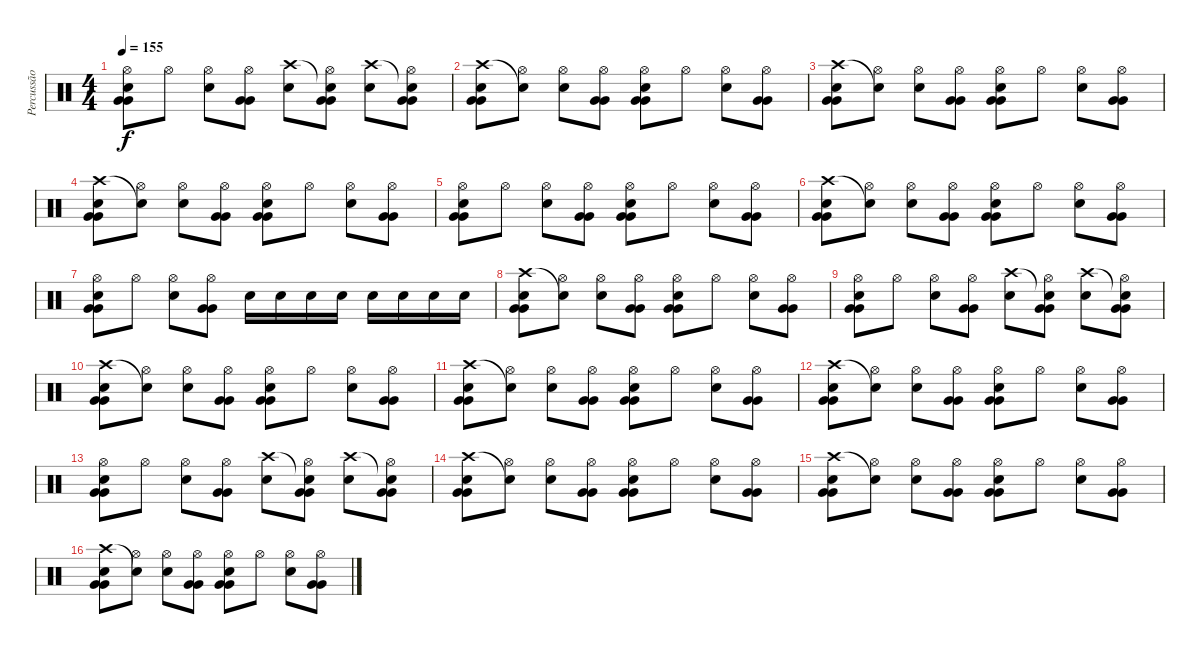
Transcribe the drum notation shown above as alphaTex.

\track ("Percussão" "Percussão") {instrument percussion}
\staff {score}
\articulation defaults
\ts (4 4)
\tempo 155
\clef neutral
\ks c
("Hi-Hat (open)" "Electric Snare (hit)" "Very Low Tom (hit)" "Very Low Tom (hit)").8{dy f} "Hi-Hat (open)".8 ("Hi-Hat (open)" "Electric Snare (hit)").8 ("Hi-Hat (open)" "Very Low Tom (hit)" "Very Low Tom (hit)").8 ("Crash high (hit)" "Electric Snare (hit)").8 ("Snare (hit)"{t} "Hi-Hat (open)" "Very Low Tom (hit)" "Very Low Tom (hit)").8 ("Crash high (hit)" "Electric Snare (hit)").8 ("Snare (hit)"{t} "Hi-Hat (open)" "Very Low Tom (hit)" "Very Low Tom (hit)").8 |
("Crash high (hit)" "Electric Snare (hit)" "Very Low Tom (hit)" "Very Low Tom (hit)").8 ("Snare (hit)"{t} "Hi-Hat (open)").8 ("Hi-Hat (open)" "Electric Snare (hit)").8 ("Hi-Hat (open)" "Very Low Tom (hit)" "Very Low Tom (hit)").8 ("Hi-Hat (open)" "Electric Snare (hit)" "Very Low Tom (hit)" "Very Low Tom (hit)").8 "Hi-Hat (open)".8 ("Hi-Hat (open)" "Electric Snare (hit)").8 ("Hi-Hat (open)" "Very Low Tom (hit)" "Very Low Tom (hit)").8 |
("Crash high (hit)" "Electric Snare (hit)" "Very Low Tom (hit)" "Very Low Tom (hit)").8 ("Snare (hit)"{t} "Hi-Hat (open)").8 ("Hi-Hat (open)" "Electric Snare (hit)").8 ("Hi-Hat (open)" "Very Low Tom (hit)" "Very Low Tom (hit)").8 ("Hi-Hat (open)" "Electric Snare (hit)" "Very Low Tom (hit)" "Very Low Tom (hit)").8 "Hi-Hat (open)".8 ("Hi-Hat (open)" "Electric Snare (hit)").8 ("Hi-Hat (open)" "Very Low Tom (hit)" "Very Low Tom (hit)").8 |
("Crash high (hit)" "Electric Snare (hit)" "Very Low Tom (hit)" "Very Low Tom (hit)").8 ("Snare (hit)"{t} "Hi-Hat (open)").8 ("Hi-Hat (open)" "Electric Snare (hit)").8 ("Hi-Hat (open)" "Very Low Tom (hit)" "Very Low Tom (hit)").8 ("Hi-Hat (open)" "Electric Snare (hit)" "Very Low Tom (hit)" "Very Low Tom (hit)").8 "Hi-Hat (open)".8 ("Hi-Hat (open)" "Electric Snare (hit)").8 ("Hi-Hat (open)" "Very Low Tom (hit)" "Very Low Tom (hit)").8 |
("Hi-Hat (open)" "Electric Snare (hit)" "Very Low Tom (hit)" "Very Low Tom (hit)").8 "Hi-Hat (open)".8 ("Hi-Hat (open)" "Electric Snare (hit)").8 ("Hi-Hat (open)" "Very Low Tom (hit)" "Very Low Tom (hit)").8 ("Hi-Hat (open)" "Electric Snare (hit)" "Very Low Tom (hit)" "Very Low Tom (hit)").8 "Hi-Hat (open)".8 ("Hi-Hat (open)" "Electric Snare (hit)").8 ("Hi-Hat (open)" "Very Low Tom (hit)" "Very Low Tom (hit)").8 |
("Crash high (hit)" "Electric Snare (hit)" "Very Low Tom (hit)" "Very Low Tom (hit)").8 ("Snare (hit)"{t} "Hi-Hat (open)").8 ("Hi-Hat (open)" "Electric Snare (hit)").8 ("Hi-Hat (open)" "Very Low Tom (hit)" "Very Low Tom (hit)").8 ("Hi-Hat (open)" "Electric Snare (hit)" "Very Low Tom (hit)" "Very Low Tom (hit)").8 "Hi-Hat (open)".8 ("Hi-Hat (open)" "Electric Snare (hit)").8 ("Hi-Hat (open)" "Very Low Tom (hit)" "Very Low Tom (hit)").8 |
("Hi-Hat (open)" "Electric Snare (hit)" "Very Low Tom (hit)" "Very Low Tom (hit)").8 "Hi-Hat (open)".8 ("Hi-Hat (open)" "Electric Snare (hit)").8 ("Hi-Hat (open)" "Very Low Tom (hit)" "Very Low Tom (hit)").8 "Electric Snare (hit)".16 "Electric Snare (hit)".16 "Electric Snare (hit)".16 "Electric Snare (hit)".16 "Electric Snare (hit)".16 "Electric Snare (hit)".16 "Electric Snare (hit)".16 "Electric Snare (hit)".16 |
("Crash high (hit)" "Electric Snare (hit)" "Very Low Tom (hit)" "Very Low Tom (hit)").8 ("Snare (hit)"{t} "Hi-Hat (open)").8 ("Hi-Hat (open)" "Electric Snare (hit)").8 ("Hi-Hat (open)" "Very Low Tom (hit)" "Very Low Tom (hit)").8 ("Hi-Hat (open)" "Electric Snare (hit)" "Very Low Tom (hit)" "Very Low Tom (hit)").8 "Hi-Hat (open)".8 ("Hi-Hat (open)" "Electric Snare (hit)").8 ("Hi-Hat (open)" "Very Low Tom (hit)" "Very Low Tom (hit)").8 |
("Hi-Hat (open)" "Electric Snare (hit)" "Very Low Tom (hit)" "Very Low Tom (hit)").8 "Hi-Hat (open)".8 ("Hi-Hat (open)" "Electric Snare (hit)").8 ("Hi-Hat (open)" "Very Low Tom (hit)" "Very Low Tom (hit)").8 ("Crash high (hit)" "Electric Snare (hit)").8 ("Snare (hit)"{t} "Hi-Hat (open)" "Very Low Tom (hit)" "Very Low Tom (hit)").8 ("Crash high (hit)" "Electric Snare (hit)").8 ("Snare (hit)"{t} "Hi-Hat (open)" "Very Low Tom (hit)" "Very Low Tom (hit)").8 |
("Crash high (hit)" "Electric Snare (hit)" "Very Low Tom (hit)" "Very Low Tom (hit)").8 ("Snare (hit)"{t} "Hi-Hat (open)").8 ("Hi-Hat (open)" "Electric Snare (hit)").8 ("Hi-Hat (open)" "Very Low Tom (hit)" "Very Low Tom (hit)").8 ("Hi-Hat (open)" "Electric Snare (hit)" "Very Low Tom (hit)" "Very Low Tom (hit)").8 "Hi-Hat (open)".8 ("Hi-Hat (open)" "Electric Snare (hit)").8 ("Hi-Hat (open)" "Very Low Tom (hit)" "Very Low Tom (hit)").8 |
("Crash high (hit)" "Electric Snare (hit)" "Very Low Tom (hit)" "Very Low Tom (hit)").8 ("Snare (hit)"{t} "Hi-Hat (open)").8 ("Hi-Hat (open)" "Electric Snare (hit)").8 ("Hi-Hat (open)" "Very Low Tom (hit)" "Very Low Tom (hit)").8 ("Hi-Hat (open)" "Electric Snare (hit)" "Very Low Tom (hit)" "Very Low Tom (hit)").8 "Hi-Hat (open)".8 ("Hi-Hat (open)" "Electric Snare (hit)").8 ("Hi-Hat (open)" "Very Low Tom (hit)" "Very Low Tom (hit)").8 |
("Crash high (hit)" "Electric Snare (hit)" "Very Low Tom (hit)" "Very Low Tom (hit)").8 ("Snare (hit)"{t} "Hi-Hat (open)").8 ("Hi-Hat (open)" "Electric Snare (hit)").8 ("Hi-Hat (open)" "Very Low Tom (hit)" "Very Low Tom (hit)").8 ("Hi-Hat (open)" "Electric Snare (hit)" "Very Low Tom (hit)" "Very Low Tom (hit)").8 "Hi-Hat (open)".8 ("Hi-Hat (open)" "Electric Snare (hit)").8 ("Hi-Hat (open)" "Very Low Tom (hit)" "Very Low Tom (hit)").8 |
("Hi-Hat (open)" "Electric Snare (hit)" "Very Low Tom (hit)" "Very Low Tom (hit)").8 "Hi-Hat (open)".8 ("Hi-Hat (open)" "Electric Snare (hit)").8 ("Hi-Hat (open)" "Very Low Tom (hit)" "Very Low Tom (hit)").8 ("Crash high (hit)" "Electric Snare (hit)").8 ("Snare (hit)"{t} "Hi-Hat (open)" "Very Low Tom (hit)" "Very Low Tom (hit)").8 ("Crash high (hit)" "Electric Snare (hit)").8 ("Snare (hit)"{t} "Hi-Hat (open)" "Very Low Tom (hit)" "Very Low Tom (hit)").8 |
("Crash high (hit)" "Electric Snare (hit)" "Very Low Tom (hit)" "Very Low Tom (hit)").8 ("Snare (hit)"{t} "Hi-Hat (open)").8 ("Hi-Hat (open)" "Electric Snare (hit)").8 ("Hi-Hat (open)" "Very Low Tom (hit)" "Very Low Tom (hit)").8 ("Hi-Hat (open)" "Electric Snare (hit)" "Very Low Tom (hit)" "Very Low Tom (hit)").8 "Hi-Hat (open)".8 ("Hi-Hat (open)" "Electric Snare (hit)").8 ("Hi-Hat (open)" "Very Low Tom (hit)" "Very Low Tom (hit)").8 |
("Crash high (hit)" "Electric Snare (hit)" "Very Low Tom (hit)" "Very Low Tom (hit)").8 ("Snare (hit)"{t} "Hi-Hat (open)").8 ("Hi-Hat (open)" "Electric Snare (hit)").8 ("Hi-Hat (open)" "Very Low Tom (hit)" "Very Low Tom (hit)").8 ("Hi-Hat (open)" "Electric Snare (hit)" "Very Low Tom (hit)" "Very Low Tom (hit)").8 "Hi-Hat (open)".8 ("Hi-Hat (open)" "Electric Snare (hit)").8 ("Hi-Hat (open)" "Very Low Tom (hit)" "Very Low Tom (hit)").8 |
("Crash high (hit)" "Electric Snare (hit)" "Very Low Tom (hit)" "Very Low Tom (hit)").8 ("Snare (hit)"{t} "Hi-Hat (open)").8 ("Hi-Hat (open)" "Electric Snare (hit)").8 ("Hi-Hat (open)" "Very Low Tom (hit)" "Very Low Tom (hit)").8 ("Hi-Hat (open)" "Electric Snare (hit)" "Very Low Tom (hit)" "Very Low Tom (hit)").8 "Hi-Hat (open)".8 ("Hi-Hat (open)" "Electric Snare (hit)").8 ("Hi-Hat (open)" "Very Low Tom (hit)" "Very Low Tom (hit)").8
